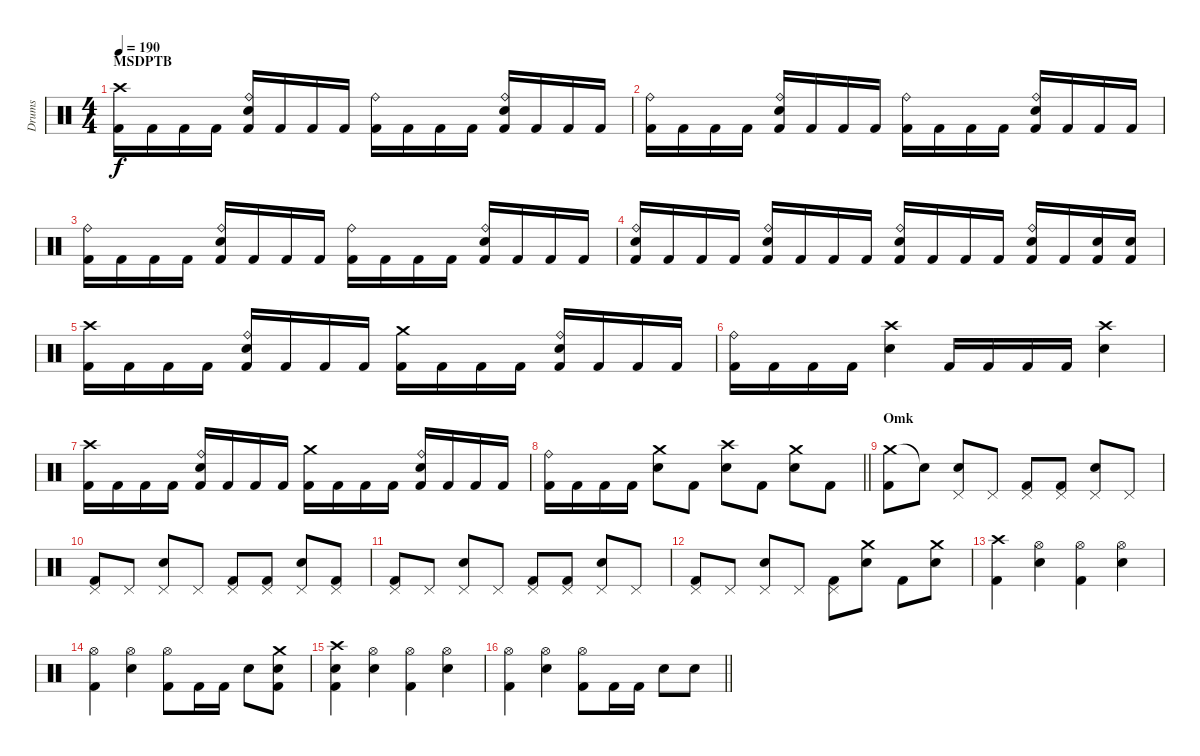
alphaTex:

\track ("Drums" "Drums") {instrument percussion}
\staff {score}
\articulation defaults
\ts (4 4)
\section ("" "MSDPTB")
\tempo 190
\clef neutral
\ks c
("Crash high (hit)" "Kick (hit) 2").16{dy f} "Kick (hit) 2".16 "Kick (hit) 2".16 "Kick (hit) 2".16 ("Ride (bell)" "Snare (hit) 2" "Kick (hit) 2").16 "Kick (hit) 2".16 "Kick (hit) 2".16 "Kick (hit) 2".16 ("Ride (bell)" "Kick (hit) 2").16 "Kick (hit) 2".16 "Kick (hit) 2".16 "Kick (hit) 2".16 ("Ride (bell)" "Snare (hit) 2" "Kick (hit) 2").16 "Kick (hit) 2".16 "Kick (hit) 2".16 "Kick (hit) 2".16 |
("Ride (bell)" "Kick (hit) 2").16 "Kick (hit) 2".16 "Kick (hit) 2".16 "Kick (hit) 2".16 ("Ride (bell)" "Snare (hit) 2" "Kick (hit) 2").16 "Kick (hit) 2".16 "Kick (hit) 2".16 "Kick (hit) 2".16 ("Ride (bell)" "Kick (hit) 2").16 "Kick (hit) 2".16 "Kick (hit) 2".16 "Kick (hit) 2".16 ("Ride (bell)" "Snare (hit) 2" "Kick (hit) 2").16 "Kick (hit) 2".16 "Kick (hit) 2".16 "Kick (hit) 2".16 |
("Ride (bell)" "Kick (hit) 2").16 "Kick (hit) 2".16 "Kick (hit) 2".16 "Kick (hit) 2".16 ("Ride (bell)" "Snare (hit) 2" "Kick (hit) 2").16 "Kick (hit) 2".16 "Kick (hit) 2".16 "Kick (hit) 2".16 ("Ride (bell)" "Kick (hit) 2").16 "Kick (hit) 2".16 "Kick (hit) 2".16 "Kick (hit) 2".16 ("Ride (bell)" "Snare (hit) 2" "Kick (hit) 2").16 "Kick (hit) 2".16 "Kick (hit) 2".16 "Kick (hit) 2".16 |
("Ride (bell)" "Snare (hit) 2" "Kick (hit) 2").16 "Kick (hit) 2".16 "Kick (hit) 2".16 "Kick (hit) 2".16 ("Ride (bell)" "Snare (hit) 2" "Kick (hit) 2").16 "Kick (hit) 2".16 "Kick (hit) 2".16 "Kick (hit) 2".16 ("Ride (bell)" "Snare (hit) 2" "Kick (hit) 2").16 "Kick (hit) 2".16 "Kick (hit) 2".16 "Kick (hit) 2".16 ("Ride (bell)" "Snare (hit) 2" "Kick (hit) 2").16 "Kick (hit) 2".16 ("Snare (hit) 2" "Kick (hit) 2").16 ("Snare (hit) 2" "Kick (hit) 2").16 |
("Crash high (hit)" "Kick (hit) 2").16 "Kick (hit) 2".16 "Kick (hit) 2".16 "Kick (hit) 2".16 ("Ride (bell)" "Snare (hit) 2" "Kick (hit) 2").16 "Kick (hit) 2".16 "Kick (hit) 2".16 "Kick (hit) 2".16 ("Crash medium (hit)" "Kick (hit) 2").16 "Kick (hit) 2".16 "Kick (hit) 2".16 "Kick (hit) 2".16 ("Ride (bell)" "Snare (hit) 2" "Kick (hit) 2").16 "Kick (hit) 2".16 "Kick (hit) 2".16 "Kick (hit) 2".16 |
("Ride (bell)" "Kick (hit) 2").16 "Kick (hit) 2".16 "Kick (hit) 2".16 "Kick (hit) 2".16 ("Crash high (hit)" "Snare (hit) 2").4 "Kick (hit) 2".16 "Kick (hit) 2".16 "Kick (hit) 2".16 "Kick (hit) 2".16 ("Crash high (hit)" "Snare (hit) 2").4 |
("Crash high (hit)" "Kick (hit) 2").16 "Kick (hit) 2".16 "Kick (hit) 2".16 "Kick (hit) 2".16 ("Ride (bell)" "Snare (hit) 2" "Kick (hit) 2").16 "Kick (hit) 2".16 "Kick (hit) 2".16 "Kick (hit) 2".16 ("Crash medium (hit)" "Kick (hit) 2").16 "Kick (hit) 2".16 "Kick (hit) 2".16 "Kick (hit) 2".16 ("Ride (bell)" "Snare (hit) 2" "Kick (hit) 2").16 "Kick (hit) 2".16 "Kick (hit) 2".16 "Kick (hit) 2".16 |
\barLineRight lightlight
("Ride (bell)" "Kick (hit) 2").16 "Kick (hit) 2".16 "Kick (hit) 2".16 "Kick (hit) 2".16 ("Crash medium (hit)" "Snare (hit) 2").8 "Kick (hit) 2".8 ("Crash high (hit)" "Snare (hit) 2").8 "Kick (hit) 2".8 ("Crash medium (hit)" "Snare (hit) 2").8 "Kick (hit) 2".8 |
\section ("" "Omk")
("Crash medium (hit)" "Kick (hit) 2").8 "Snare (hit)"{t}.8 ("Pedal Hi-Hat (hit)" "Snare (hit) 2").8 "Pedal Hi-Hat (hit)".8 ("Pedal Hi-Hat (hit)" "Kick (hit) 2").8 ("Pedal Hi-Hat (hit)" "Kick (hit) 2").8 ("Pedal Hi-Hat (hit)" "Snare (hit) 2").8 "Pedal Hi-Hat (hit)".8 |
("Pedal Hi-Hat (hit)" "Kick (hit) 2").8 "Pedal Hi-Hat (hit)".8 ("Pedal Hi-Hat (hit)" "Snare (hit) 2").8 "Pedal Hi-Hat (hit)".8 ("Pedal Hi-Hat (hit)" "Kick (hit) 2").8 ("Pedal Hi-Hat (hit)" "Kick (hit) 2").8 ("Pedal Hi-Hat (hit)" "Snare (hit) 2").8 ("Pedal Hi-Hat (hit)" "Kick (hit) 2").8 |
("Pedal Hi-Hat (hit)" "Kick (hit) 2").8 "Pedal Hi-Hat (hit)".8 ("Pedal Hi-Hat (hit)" "Snare (hit) 2").8 "Pedal Hi-Hat (hit)".8 ("Pedal Hi-Hat (hit)" "Kick (hit) 2").8 ("Pedal Hi-Hat (hit)" "Kick (hit) 2").8 ("Pedal Hi-Hat (hit)" "Snare (hit) 2").8 "Pedal Hi-Hat (hit)".8 |
("Pedal Hi-Hat (hit)" "Kick (hit) 2").8 "Pedal Hi-Hat (hit)".8 ("Pedal Hi-Hat (hit)" "Snare (hit) 2").8 "Pedal Hi-Hat (hit)".8 ("Pedal Hi-Hat (hit)" "Kick (hit) 2").8 ("Crash medium (hit)" "Snare (hit) 2").8 "Kick (hit) 2".8 ("Crash medium (hit)" "Snare (hit) 2").8 |
("Crash high (hit)" "Kick (hit) 2").4 ("Hi-Hat (open)" "Snare (hit) 2").4 ("Hi-Hat (open)" "Kick (hit) 2").4 ("Hi-Hat (open)" "Snare (hit) 2").4 |
("Hi-Hat (open)" "Kick (hit) 2").4 ("Hi-Hat (open)" "Snare (hit) 2").4 ("Hi-Hat (open)" "Kick (hit) 2").8 "Kick (hit) 2".16 "Kick (hit) 2".16 "Snare (hit) 2".8 ("Crash medium (hit)" "Snare (hit) 2" "Kick (hit) 2").8 |
("Crash high (hit)" "Snare (hit) 2" "Kick (hit) 2").4 ("Hi-Hat (open)" "Snare (hit) 2").4 ("Hi-Hat (open)" "Kick (hit) 2").4 ("Hi-Hat (open)" "Snare (hit) 2").4 |
\barLineRight lightlight
("Hi-Hat (open)" "Kick (hit) 2").4 ("Hi-Hat (open)" "Snare (hit) 2").4 ("Hi-Hat (open)" "Kick (hit) 2").8 "Kick (hit) 2".16 "Kick (hit) 2".16 "Snare (hit) 2".8 "Snare (hit) 2".8
